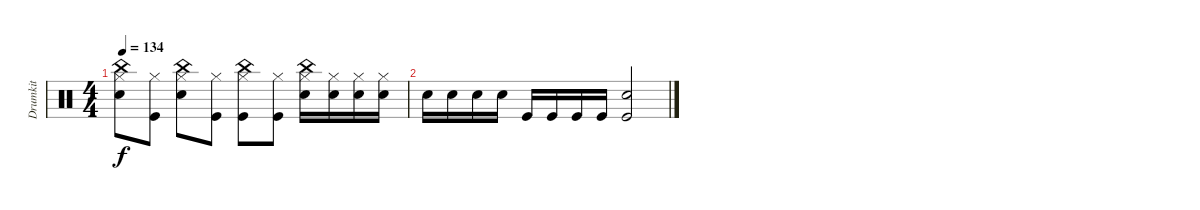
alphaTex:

\track ("Drumkit" "Drumkit") {instrument percussion}
\staff {score}
\articulation defaults
\ts (4 4)
\tempo 134
\clef neutral
\ks c
("Snare (hit) 2" "Hi-Hat (closed)" "China (hit)").8{dy f} ("Kick (hit)" "Hi-Hat (closed)").8 ("Snare (hit) 2" "Hi-Hat (closed)" "China (hit)").8 ("Kick (hit)" "Hi-Hat (closed)").8 ("Hi-Hat (closed)" "China (hit)" "Kick (hit)").8 ("Kick (hit)" "Hi-Hat (closed)").8 ("Snare (hit) 2" "Hi-Hat (closed)" "China (hit)").16 ("Hi-Hat (closed)" "Snare (hit) 2").16 ("Snare (hit) 2" "Hi-Hat (closed)").16 ("Snare (hit) 2" "Hi-Hat (closed)").16 |
"Snare (hit) 2".16 "Snare (hit) 2".16 "Snare (hit) 2".16 "Snare (hit) 2".16 "Kick (hit)".16 "Kick (hit)".16 "Kick (hit)".16 "Kick (hit)".16 ("Kick (hit)" "Snare (hit) 2").2
